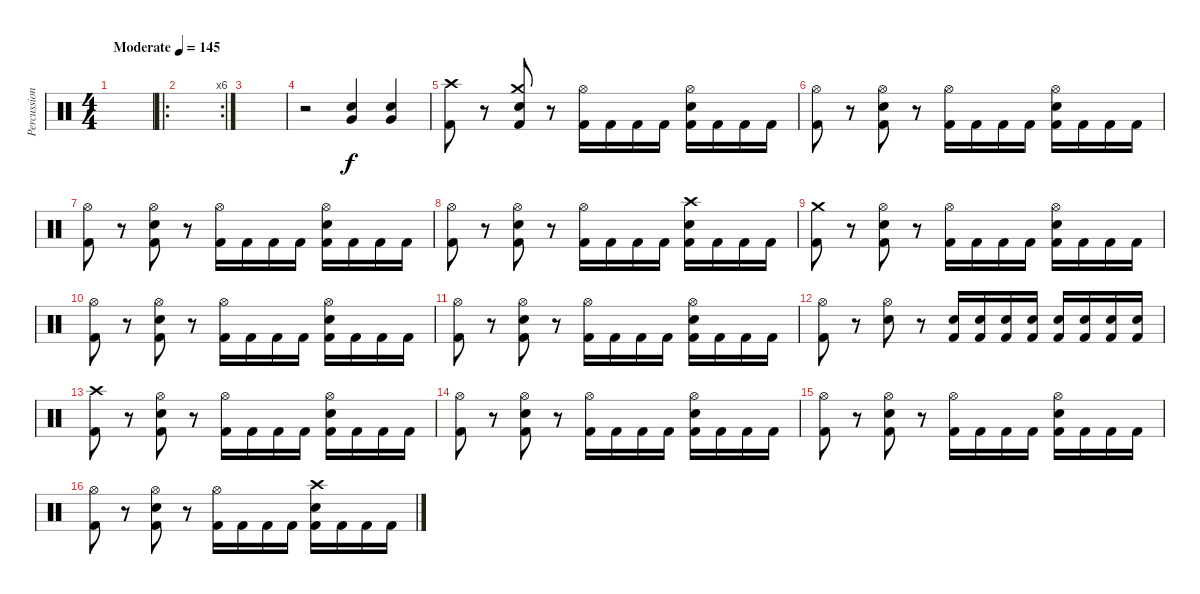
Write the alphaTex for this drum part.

\track ("Percussion" "Percussion") {instrument percussion}
\staff {score}
\articulation defaults
\ts (4 4)
\tempo (145 "Moderate")
\clef neutral
\ks c
|
\ro
\rc 6
|
|
r.2 ("Very Low Tom (hit)" "Electric Snare (hit)").4 ("Very Low Tom (hit)" "Electric Snare (hit)").4 |
("Crash high (hit)" "Kick (hit) 2").8 r.8 ("Crash medium (hit)" "Snare (hit) 2" "Kick (hit) 2").8 r.8 ("Hi-Hat (open)" "Kick (hit) 2").16 "Kick (hit) 2".16 "Kick (hit) 2".16 "Kick (hit) 2".16 ("Hi-Hat (open)" "Snare (hit) 2" "Kick (hit) 2").16 "Kick (hit) 2".16 "Kick (hit) 2".16 "Kick (hit) 2".16 |
("Hi-Hat (open)" "Kick (hit) 2").8 r.8 ("Hi-Hat (open)" "Snare (hit) 2" "Kick (hit) 2").8 r.8 ("Hi-Hat (open)" "Kick (hit) 2").16 "Kick (hit) 2".16 "Kick (hit) 2".16 "Kick (hit) 2".16 ("Hi-Hat (open)" "Snare (hit) 2" "Kick (hit) 2").16 "Kick (hit) 2".16 "Kick (hit) 2".16 "Kick (hit) 2".16 |
("Hi-Hat (open)" "Kick (hit) 2").8 r.8 ("Hi-Hat (open)" "Snare (hit) 2" "Kick (hit) 2").8 r.8 ("Hi-Hat (open)" "Kick (hit) 2").16 "Kick (hit) 2".16 "Kick (hit) 2".16 "Kick (hit) 2".16 ("Hi-Hat (open)" "Snare (hit) 2" "Kick (hit) 2").16 "Kick (hit) 2".16 "Kick (hit) 2".16 "Kick (hit) 2".16 |
("Hi-Hat (open)" "Kick (hit) 2").8 r.8 ("Hi-Hat (open)" "Snare (hit) 2" "Kick (hit) 2").8 r.8 ("Hi-Hat (open)" "Kick (hit) 2").16 "Kick (hit) 2".16 "Kick (hit) 2".16 "Kick (hit) 2".16 ("Crash high (hit)" "Snare (hit) 2" "Kick (hit) 2").16 "Kick (hit) 2".16 "Kick (hit) 2".16 "Kick (hit) 2".16 |
("Crash medium (hit)" "Kick (hit) 2").8 r.8 ("Hi-Hat (open)" "Snare (hit) 2" "Kick (hit) 2").8 r.8 ("Hi-Hat (open)" "Kick (hit) 2").16 "Kick (hit) 2".16 "Kick (hit) 2".16 "Kick (hit) 2".16 ("Hi-Hat (open)" "Snare (hit) 2" "Kick (hit) 2").16 "Kick (hit) 2".16 "Kick (hit) 2".16 "Kick (hit) 2".16 |
("Hi-Hat (open)" "Kick (hit) 2").8 r.8 ("Hi-Hat (open)" "Snare (hit) 2" "Kick (hit) 2").8 r.8 ("Hi-Hat (open)" "Kick (hit) 2").16 "Kick (hit) 2".16 "Kick (hit) 2".16 "Kick (hit) 2".16 ("Hi-Hat (open)" "Snare (hit) 2" "Kick (hit) 2").16 "Kick (hit) 2".16 "Kick (hit) 2".16 "Kick (hit) 2".16 |
("Hi-Hat (open)" "Kick (hit) 2").8 r.8 ("Hi-Hat (open)" "Snare (hit) 2" "Kick (hit) 2").8 r.8 ("Hi-Hat (open)" "Kick (hit) 2").16 "Kick (hit) 2".16 "Kick (hit) 2".16 "Kick (hit) 2".16 ("Hi-Hat (open)" "Snare (hit) 2" "Kick (hit) 2").16 "Kick (hit) 2".16 "Kick (hit) 2".16 "Kick (hit) 2".16 |
("Hi-Hat (open)" "Kick (hit) 2").8 r.8 ("Hi-Hat (open)" "Snare (hit) 2").8 r.8 ("Snare (hit) 2" "Kick (hit) 2").16 ("Snare (hit) 2" "Kick (hit) 2").16 ("Snare (hit) 2" "Kick (hit) 2").16 ("Snare (hit) 2" "Kick (hit) 2").16 ("Snare (hit) 2" "Kick (hit) 2").16 ("Snare (hit) 2" "Kick (hit) 2").16 ("Snare (hit) 2" "Kick (hit) 2").16 ("Snare (hit) 2" "Kick (hit) 2").16 |
("Crash high (hit)" "Kick (hit) 2").8 r.8 ("Hi-Hat (open)" "Snare (hit) 2" "Kick (hit) 2").8 r.8 ("Hi-Hat (open)" "Kick (hit) 2").16 "Kick (hit) 2".16 "Kick (hit) 2".16 "Kick (hit) 2".16 ("Hi-Hat (open)" "Snare (hit) 2" "Kick (hit) 2").16 "Kick (hit) 2".16 "Kick (hit) 2".16 "Kick (hit) 2".16 |
("Hi-Hat (open)" "Kick (hit) 2").8 r.8 ("Hi-Hat (open)" "Snare (hit) 2" "Kick (hit) 2").8 r.8 ("Hi-Hat (open)" "Kick (hit) 2").16 "Kick (hit) 2".16 "Kick (hit) 2".16 "Kick (hit) 2".16 ("Hi-Hat (open)" "Snare (hit) 2" "Kick (hit) 2").16 "Kick (hit) 2".16 "Kick (hit) 2".16 "Kick (hit) 2".16 |
("Hi-Hat (open)" "Kick (hit) 2").8 r.8 ("Hi-Hat (open)" "Snare (hit) 2" "Kick (hit) 2").8 r.8 ("Hi-Hat (open)" "Kick (hit) 2").16 "Kick (hit) 2".16 "Kick (hit) 2".16 "Kick (hit) 2".16 ("Hi-Hat (open)" "Snare (hit) 2" "Kick (hit) 2").16 "Kick (hit) 2".16 "Kick (hit) 2".16 "Kick (hit) 2".16 |
("Hi-Hat (open)" "Kick (hit) 2").8 r.8 ("Hi-Hat (open)" "Snare (hit) 2" "Kick (hit) 2").8 r.8 ("Hi-Hat (open)" "Kick (hit) 2").16 "Kick (hit) 2".16 "Kick (hit) 2".16 "Kick (hit) 2".16 ("Crash high (hit)" "Snare (hit) 2" "Kick (hit) 2").16 "Kick (hit) 2".16 "Kick (hit) 2".16 "Kick (hit) 2".16
